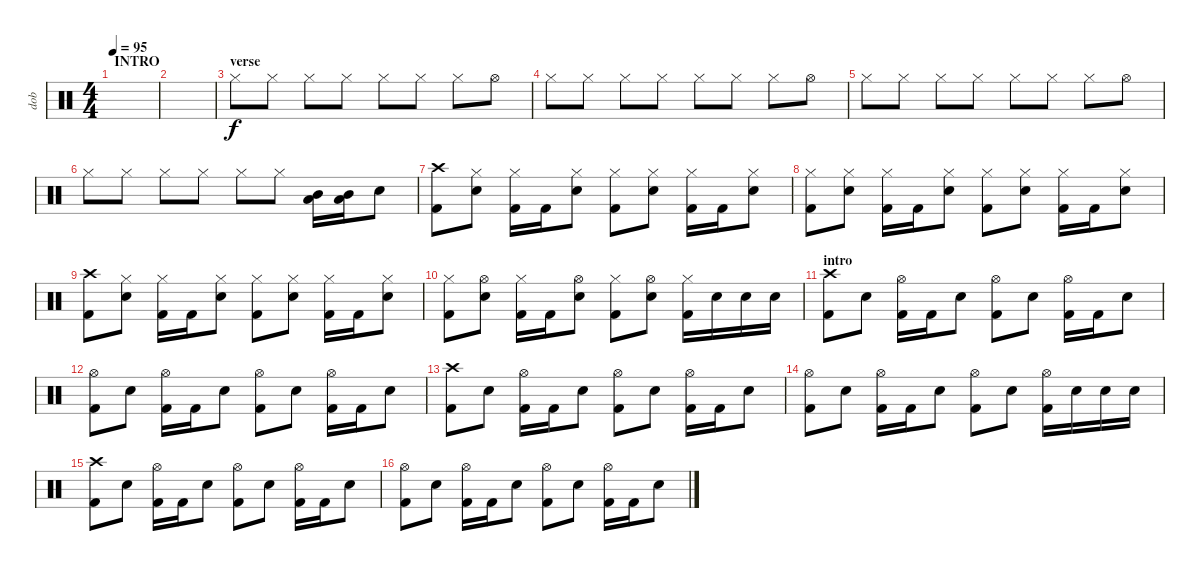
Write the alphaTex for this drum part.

\track ("dob" "dob") {instrument percussion}
\staff {score}
\articulation defaults
\ts (4 4)
\section ("" "INTRO")
\tempo 95
\clef neutral
\ks c
|
|
\section ("" "verse")
"Hi-Hat (closed)".8 "Hi-Hat (closed)".8 "Hi-Hat (closed)".8 "Hi-Hat (closed)".8 "Hi-Hat (closed)".8 "Hi-Hat (closed)".8 "Hi-Hat (closed)".8 "Hi-Hat (open)".8 |
"Hi-Hat (closed)".8 "Hi-Hat (closed)".8 "Hi-Hat (closed)".8 "Hi-Hat (closed)".8 "Hi-Hat (closed)".8 "Hi-Hat (closed)".8 "Hi-Hat (closed)".8 "Hi-Hat (open)".8 |
"Hi-Hat (closed)".8 "Hi-Hat (closed)".8 "Hi-Hat (closed)".8 "Hi-Hat (closed)".8 "Hi-Hat (closed)".8 "Hi-Hat (closed)".8 "Hi-Hat (closed)".8 "Hi-Hat (open)".8 |
"Hi-Hat (closed)".8 "Hi-Hat (closed)".8 "Hi-Hat (closed)".8 "Hi-Hat (closed)".8 "Hi-Hat (closed)".8 "Hi-Hat (closed)".8 ("Low Floor Tom (hit)" "Mid Tom (hit)").16 ("Low Floor Tom (hit)" "Mid Tom (hit)").16 "Snare (hit) 2".8 |
("Crash high (hit)" "Kick (hit) 2").8 ("Hi-Hat (closed)" "Snare (hit) 2").8 ("Hi-Hat (closed)" "Kick (hit) 2").16 "Kick (hit) 2".16 ("Hi-Hat (closed)" "Snare (hit) 2").8 ("Hi-Hat (closed)" "Kick (hit) 2").8 ("Hi-Hat (closed)" "Snare (hit) 2").8 ("Hi-Hat (closed)" "Kick (hit) 2").16 "Kick (hit) 2".16 ("Hi-Hat (closed)" "Snare (hit) 2").8 |
("Hi-Hat (closed)" "Kick (hit) 2").8 ("Hi-Hat (closed)" "Snare (hit) 2").8 ("Hi-Hat (closed)" "Kick (hit) 2").16 "Kick (hit) 2".16 ("Hi-Hat (closed)" "Snare (hit) 2").8 ("Hi-Hat (closed)" "Kick (hit) 2").8 ("Hi-Hat (closed)" "Snare (hit) 2").8 ("Hi-Hat (closed)" "Kick (hit) 2").16 "Kick (hit) 2".16 ("Hi-Hat (closed)" "Snare (hit) 2").8 |
("Crash high (hit)" "Kick (hit) 2").8 ("Hi-Hat (closed)" "Snare (hit) 2").8 ("Hi-Hat (closed)" "Kick (hit) 2").16 "Kick (hit) 2".16 ("Hi-Hat (closed)" "Snare (hit) 2").8 ("Hi-Hat (closed)" "Kick (hit) 2").8 ("Hi-Hat (closed)" "Snare (hit) 2").8 ("Hi-Hat (closed)" "Kick (hit) 2").16 "Kick (hit) 2".16 ("Hi-Hat (closed)" "Snare (hit) 2").8 |
("Hi-Hat (closed)" "Kick (hit) 2").8 ("Hi-Hat (open)" "Snare (hit) 2").8 ("Hi-Hat (closed)" "Kick (hit) 2").16 "Kick (hit) 2".16 ("Hi-Hat (open)" "Snare (hit) 2").8 ("Hi-Hat (closed)" "Kick (hit) 2").8 ("Hi-Hat (open)" "Snare (hit) 2").8 ("Hi-Hat (closed)" "Kick (hit) 2").16 "Snare (hit) 2".16 "Snare (hit) 2".16 "Snare (hit) 2".16 |
\section ("" "intro")
("Crash high (hit)" "Kick (hit) 2").8 "Snare (hit) 2".8 ("Hi-Hat (open)" "Kick (hit) 2").16 "Kick (hit) 2".16 "Snare (hit) 2".8 ("Hi-Hat (open)" "Kick (hit) 2").8 "Snare (hit) 2".8 ("Hi-Hat (open)" "Kick (hit) 2").16 "Kick (hit) 2".16 "Snare (hit) 2".8 |
("Hi-Hat (open)" "Kick (hit) 2").8 "Snare (hit) 2".8 ("Hi-Hat (open)" "Kick (hit) 2").16 "Kick (hit) 2".16 "Snare (hit) 2".8 ("Hi-Hat (open)" "Kick (hit) 2").8 "Snare (hit) 2".8 ("Hi-Hat (open)" "Kick (hit) 2").16 "Kick (hit) 2".16 "Snare (hit) 2".8 |
("Crash high (hit)" "Kick (hit) 2").8 "Snare (hit) 2".8 ("Hi-Hat (open)" "Kick (hit) 2").16 "Kick (hit) 2".16 "Snare (hit) 2".8 ("Hi-Hat (open)" "Kick (hit) 2").8 "Snare (hit) 2".8 ("Hi-Hat (open)" "Kick (hit) 2").16 "Kick (hit) 2".16 "Snare (hit) 2".8 |
("Hi-Hat (open)" "Kick (hit) 2").8 "Snare (hit) 2".8 ("Hi-Hat (open)" "Kick (hit) 2").16 "Kick (hit) 2".16 "Snare (hit) 2".8 ("Hi-Hat (open)" "Kick (hit) 2").8 "Snare (hit) 2".8 ("Hi-Hat (open)" "Kick (hit) 2").16 "Snare (hit) 2".16 "Snare (hit) 2".16 "Snare (hit) 2".16 |
("Crash high (hit)" "Kick (hit) 2").8 "Snare (hit) 2".8 ("Hi-Hat (open)" "Kick (hit) 2").16 "Kick (hit) 2".16 "Snare (hit) 2".8 ("Hi-Hat (open)" "Kick (hit) 2").8 "Snare (hit) 2".8 ("Hi-Hat (open)" "Kick (hit) 2").16 "Kick (hit) 2".16 "Snare (hit) 2".8 |
("Hi-Hat (open)" "Kick (hit) 2").8 "Snare (hit) 2".8 ("Hi-Hat (open)" "Kick (hit) 2").16 "Kick (hit) 2".16 "Snare (hit) 2".8 ("Hi-Hat (open)" "Kick (hit) 2").8 "Snare (hit) 2".8 ("Hi-Hat (open)" "Kick (hit) 2").16 "Kick (hit) 2".16 "Snare (hit) 2".8
